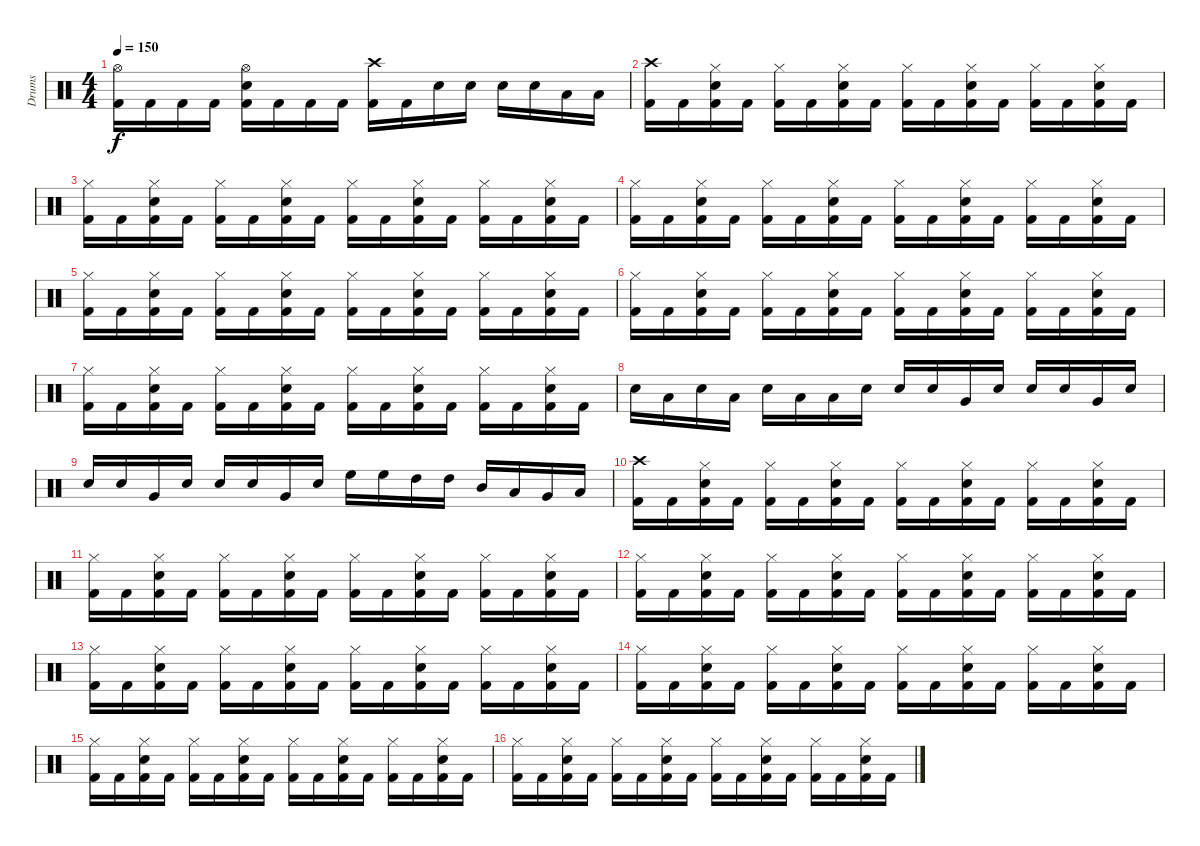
\track ("Drums" "Drums") {instrument percussion}
\staff {score}
\articulation defaults
\ts (4 4)
\tempo 150
\clef neutral
\ks c
("Hi-Hat (open)" "Kick (hit) 2").16{dy f} "Kick (hit) 2".16 "Kick (hit) 2".16 "Kick (hit) 2".16 ("Hi-Hat (open)" "Electric Snare (hit)" "Kick (hit) 2").16 "Kick (hit) 2".16 "Kick (hit) 2".16 "Kick (hit) 2".16 ("Crash high (hit)" "Kick (hit) 2").16 "Kick (hit) 2".16 "Electric Snare (hit)".16 "Electric Snare (hit)".16 "Electric Snare (hit)".16 "Electric Snare (hit)".16 "Low Tom (hit)".16 "Low Floor Tom (hit)".16 |
("Crash high (hit)" "Kick (hit) 2").16 "Kick (hit) 2".16 ("Hi-Hat (closed)" "Electric Snare (hit)" "Kick (hit) 2").16 "Kick (hit) 2".16 ("Hi-Hat (closed)" "Kick (hit) 2").16 "Kick (hit) 2".16 ("Hi-Hat (closed)" "Electric Snare (hit)" "Kick (hit) 2").16 "Kick (hit) 2".16 ("Hi-Hat (closed)" "Kick (hit) 2").16 "Kick (hit) 2".16 ("Hi-Hat (closed)" "Electric Snare (hit)" "Kick (hit) 2").16 "Kick (hit) 2".16 ("Hi-Hat (closed)" "Kick (hit) 2").16 "Kick (hit) 2".16 ("Hi-Hat (closed)" "Electric Snare (hit)" "Kick (hit) 2").16 "Kick (hit) 2".16 |
("Hi-Hat (closed)" "Kick (hit) 2").16 "Kick (hit) 2".16 ("Hi-Hat (closed)" "Electric Snare (hit)" "Kick (hit) 2").16 "Kick (hit) 2".16 ("Hi-Hat (closed)" "Kick (hit) 2").16 "Kick (hit) 2".16 ("Hi-Hat (closed)" "Electric Snare (hit)" "Kick (hit) 2").16 "Kick (hit) 2".16 ("Hi-Hat (closed)" "Kick (hit) 2").16 "Kick (hit) 2".16 ("Hi-Hat (closed)" "Electric Snare (hit)" "Kick (hit) 2").16 "Kick (hit) 2".16 ("Hi-Hat (closed)" "Kick (hit) 2").16 "Kick (hit) 2".16 ("Hi-Hat (closed)" "Electric Snare (hit)" "Kick (hit) 2").16 "Kick (hit) 2".16 |
("Hi-Hat (closed)" "Kick (hit) 2").16 "Kick (hit) 2".16 ("Hi-Hat (closed)" "Electric Snare (hit)" "Kick (hit) 2").16 "Kick (hit) 2".16 ("Hi-Hat (closed)" "Kick (hit) 2").16 "Kick (hit) 2".16 ("Hi-Hat (closed)" "Electric Snare (hit)" "Kick (hit) 2").16 "Kick (hit) 2".16 ("Hi-Hat (closed)" "Kick (hit) 2").16 "Kick (hit) 2".16 ("Hi-Hat (closed)" "Electric Snare (hit)" "Kick (hit) 2").16 "Kick (hit) 2".16 ("Hi-Hat (closed)" "Kick (hit) 2").16 "Kick (hit) 2".16 ("Hi-Hat (closed)" "Electric Snare (hit)" "Kick (hit) 2").16 "Kick (hit) 2".16 |
("Hi-Hat (closed)" "Kick (hit) 2").16 "Kick (hit) 2".16 ("Hi-Hat (closed)" "Electric Snare (hit)" "Kick (hit) 2").16 "Kick (hit) 2".16 ("Hi-Hat (closed)" "Kick (hit) 2").16 "Kick (hit) 2".16 ("Hi-Hat (closed)" "Electric Snare (hit)" "Kick (hit) 2").16 "Kick (hit) 2".16 ("Hi-Hat (closed)" "Kick (hit) 2").16 "Kick (hit) 2".16 ("Hi-Hat (closed)" "Electric Snare (hit)" "Kick (hit) 2").16 "Kick (hit) 2".16 ("Hi-Hat (closed)" "Kick (hit) 2").16 "Kick (hit) 2".16 ("Hi-Hat (closed)" "Electric Snare (hit)" "Kick (hit) 2").16 "Kick (hit) 2".16 |
("Hi-Hat (closed)" "Kick (hit) 2").16 "Kick (hit) 2".16 ("Hi-Hat (closed)" "Electric Snare (hit)" "Kick (hit) 2").16 "Kick (hit) 2".16 ("Hi-Hat (closed)" "Kick (hit) 2").16 "Kick (hit) 2".16 ("Hi-Hat (closed)" "Electric Snare (hit)" "Kick (hit) 2").16 "Kick (hit) 2".16 ("Hi-Hat (closed)" "Kick (hit) 2").16 "Kick (hit) 2".16 ("Hi-Hat (closed)" "Electric Snare (hit)" "Kick (hit) 2").16 "Kick (hit) 2".16 ("Hi-Hat (closed)" "Kick (hit) 2").16 "Kick (hit) 2".16 ("Hi-Hat (closed)" "Electric Snare (hit)" "Kick (hit) 2").16 "Kick (hit) 2".16 |
("Hi-Hat (closed)" "Kick (hit) 2").16 "Kick (hit) 2".16 ("Hi-Hat (closed)" "Electric Snare (hit)" "Kick (hit) 2").16 "Kick (hit) 2".16 ("Hi-Hat (closed)" "Kick (hit) 2").16 "Kick (hit) 2".16 ("Hi-Hat (closed)" "Electric Snare (hit)" "Kick (hit) 2").16 "Kick (hit) 2".16 ("Hi-Hat (closed)" "Kick (hit) 2").16 "Kick (hit) 2".16 ("Hi-Hat (closed)" "Electric Snare (hit)" "Kick (hit) 2").16 "Kick (hit) 2".16 ("Hi-Hat (closed)" "Kick (hit) 2").16 "Kick (hit) 2".16 ("Hi-Hat (closed)" "Electric Snare (hit)" "Kick (hit) 2").16 "Kick (hit) 2".16 |
"Electric Snare (hit)".16 "Low Tom (hit)".16 "Electric Snare (hit)".16 "Low Tom (hit)".16 "Electric Snare (hit)".16 "Low Tom (hit)".16 "Low Floor Tom (hit)".16 "Electric Snare (hit)".16 "Electric Snare (hit)".16 "Electric Snare (hit)".16 "Very Low Tom (hit)".16 "Electric Snare (hit)".16 "Electric Snare (hit)".16 "Electric Snare (hit)".16 "Very Low Tom (hit)".16 "Electric Snare (hit)".16 |
"Electric Snare (hit)".16 "Electric Snare (hit)".16 "Very Low Tom (hit)".16 "Electric Snare (hit)".16 "Electric Snare (hit)".16 "Electric Snare (hit)".16 "Very Low Tom (hit)".16 "Electric Snare (hit)".16 "High Floor Tom (hit)".16 "High Floor Tom (hit)".16 "High Tom (hit)".16 "High Tom (hit)".16 "Mid Tom (hit)".16 "Low Tom (hit)".16 "Very Low Tom (hit)".16 "Low Floor Tom (hit)".16 |
("Crash high (hit)" "Kick (hit) 2").16 "Kick (hit) 2".16 ("Hi-Hat (closed)" "Electric Snare (hit)" "Kick (hit) 2").16 "Kick (hit) 2".16 ("Hi-Hat (closed)" "Kick (hit) 2").16 "Kick (hit) 2".16 ("Hi-Hat (closed)" "Electric Snare (hit)" "Kick (hit) 2").16 "Kick (hit) 2".16 ("Hi-Hat (closed)" "Kick (hit) 2").16 "Kick (hit) 2".16 ("Hi-Hat (closed)" "Electric Snare (hit)" "Kick (hit) 2").16 "Kick (hit) 2".16 ("Hi-Hat (closed)" "Kick (hit) 2").16 "Kick (hit) 2".16 ("Hi-Hat (closed)" "Electric Snare (hit)" "Kick (hit) 2").16 "Kick (hit) 2".16 |
("Hi-Hat (closed)" "Kick (hit) 2").16 "Kick (hit) 2".16 ("Hi-Hat (closed)" "Electric Snare (hit)" "Kick (hit) 2").16 "Kick (hit) 2".16 ("Hi-Hat (closed)" "Kick (hit) 2").16 "Kick (hit) 2".16 ("Hi-Hat (closed)" "Electric Snare (hit)" "Kick (hit) 2").16 "Kick (hit) 2".16 ("Hi-Hat (closed)" "Kick (hit) 2").16 "Kick (hit) 2".16 ("Hi-Hat (closed)" "Electric Snare (hit)" "Kick (hit) 2").16 "Kick (hit) 2".16 ("Hi-Hat (closed)" "Kick (hit) 2").16 "Kick (hit) 2".16 ("Hi-Hat (closed)" "Electric Snare (hit)" "Kick (hit) 2").16 "Kick (hit) 2".16 |
("Hi-Hat (closed)" "Kick (hit) 2").16 "Kick (hit) 2".16 ("Hi-Hat (closed)" "Electric Snare (hit)" "Kick (hit) 2").16 "Kick (hit) 2".16 ("Hi-Hat (closed)" "Kick (hit) 2").16 "Kick (hit) 2".16 ("Hi-Hat (closed)" "Electric Snare (hit)" "Kick (hit) 2").16 "Kick (hit) 2".16 ("Hi-Hat (closed)" "Kick (hit) 2").16 "Kick (hit) 2".16 ("Hi-Hat (closed)" "Electric Snare (hit)" "Kick (hit) 2").16 "Kick (hit) 2".16 ("Hi-Hat (closed)" "Kick (hit) 2").16 "Kick (hit) 2".16 ("Hi-Hat (closed)" "Electric Snare (hit)" "Kick (hit) 2").16 "Kick (hit) 2".16 |
("Hi-Hat (closed)" "Kick (hit) 2").16 "Kick (hit) 2".16 ("Hi-Hat (closed)" "Electric Snare (hit)" "Kick (hit) 2").16 "Kick (hit) 2".16 ("Hi-Hat (closed)" "Kick (hit) 2").16 "Kick (hit) 2".16 ("Hi-Hat (closed)" "Electric Snare (hit)" "Kick (hit) 2").16 "Kick (hit) 2".16 ("Hi-Hat (closed)" "Kick (hit) 2").16 "Kick (hit) 2".16 ("Hi-Hat (closed)" "Electric Snare (hit)" "Kick (hit) 2").16 "Kick (hit) 2".16 ("Hi-Hat (closed)" "Kick (hit) 2").16 "Kick (hit) 2".16 ("Hi-Hat (closed)" "Electric Snare (hit)" "Kick (hit) 2").16 "Kick (hit) 2".16 |
("Hi-Hat (closed)" "Kick (hit) 2").16 "Kick (hit) 2".16 ("Hi-Hat (closed)" "Electric Snare (hit)" "Kick (hit) 2").16 "Kick (hit) 2".16 ("Hi-Hat (closed)" "Kick (hit) 2").16 "Kick (hit) 2".16 ("Hi-Hat (closed)" "Electric Snare (hit)" "Kick (hit) 2").16 "Kick (hit) 2".16 ("Hi-Hat (closed)" "Kick (hit) 2").16 "Kick (hit) 2".16 ("Hi-Hat (closed)" "Electric Snare (hit)" "Kick (hit) 2").16 "Kick (hit) 2".16 ("Hi-Hat (closed)" "Kick (hit) 2").16 "Kick (hit) 2".16 ("Hi-Hat (closed)" "Electric Snare (hit)" "Kick (hit) 2").16 "Kick (hit) 2".16 |
("Hi-Hat (closed)" "Kick (hit) 2").16 "Kick (hit) 2".16 ("Hi-Hat (closed)" "Electric Snare (hit)" "Kick (hit) 2").16 "Kick (hit) 2".16 ("Hi-Hat (closed)" "Kick (hit) 2").16 "Kick (hit) 2".16 ("Hi-Hat (closed)" "Electric Snare (hit)" "Kick (hit) 2").16 "Kick (hit) 2".16 ("Hi-Hat (closed)" "Kick (hit) 2").16 "Kick (hit) 2".16 ("Hi-Hat (closed)" "Electric Snare (hit)" "Kick (hit) 2").16 "Kick (hit) 2".16 ("Hi-Hat (closed)" "Kick (hit) 2").16 "Kick (hit) 2".16 ("Hi-Hat (closed)" "Electric Snare (hit)" "Kick (hit) 2").16 "Kick (hit) 2".16 |
("Hi-Hat (closed)" "Kick (hit) 2").16 "Kick (hit) 2".16 ("Hi-Hat (closed)" "Electric Snare (hit)" "Kick (hit) 2").16 "Kick (hit) 2".16 ("Hi-Hat (closed)" "Kick (hit) 2").16 "Kick (hit) 2".16 ("Hi-Hat (closed)" "Electric Snare (hit)" "Kick (hit) 2").16 "Kick (hit) 2".16 ("Hi-Hat (closed)" "Kick (hit) 2").16 "Kick (hit) 2".16 ("Hi-Hat (closed)" "Electric Snare (hit)" "Kick (hit) 2").16 "Kick (hit) 2".16 ("Hi-Hat (closed)" "Kick (hit) 2").16 "Kick (hit) 2".16 ("Hi-Hat (closed)" "Electric Snare (hit)" "Kick (hit) 2").16 "Kick (hit) 2".16
